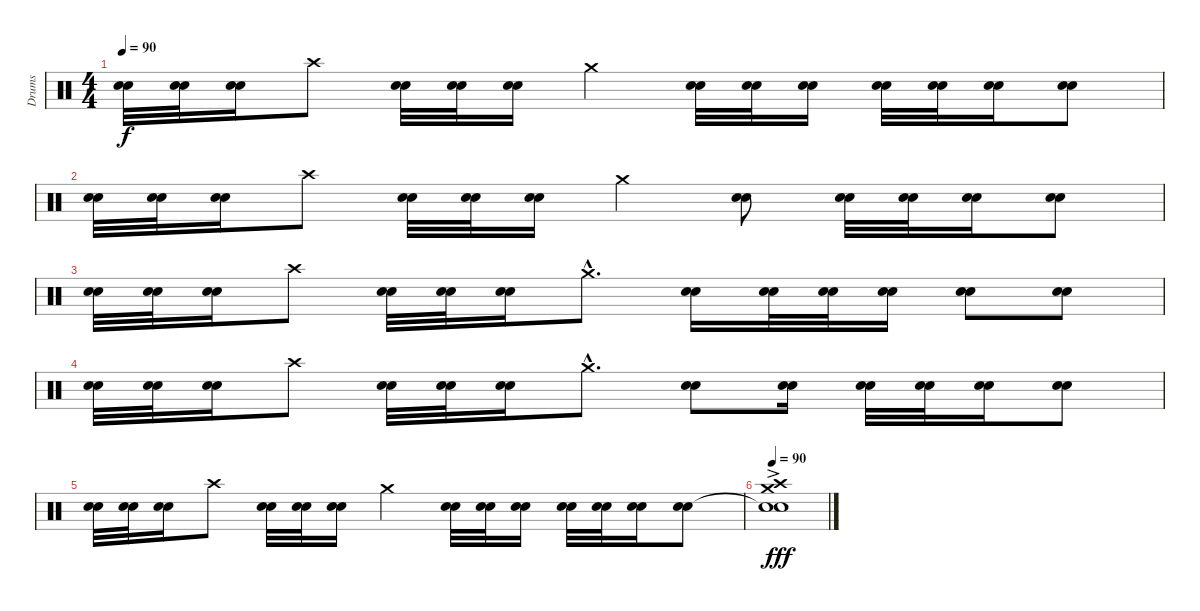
\track ("Drums" "Drums") {instrument percussion}
\staff {score}
\articulation defaults
\ts (4 4)
\tempo 90
\clef neutral
\ks c
("Electric Snare (hit)" "Snare (hit) 2").32{dy f} ("Electric Snare (hit)" "Snare (hit) 2").32 ("Electric Snare (hit)" "Snare (hit) 2").16 "Crash high (hit)".8 ("Electric Snare (hit)" "Snare (hit) 2").32 ("Electric Snare (hit)" "Snare (hit) 2").32 ("Electric Snare (hit)" "Snare (hit) 2").16 "Crash medium (hit)".4 ("Electric Snare (hit)" "Snare (hit) 2").32 ("Electric Snare (hit)" "Snare (hit) 2").32 ("Electric Snare (hit)" "Snare (hit) 2").16 ("Electric Snare (hit)" "Snare (hit) 2").32 ("Electric Snare (hit)" "Snare (hit) 2").32 ("Electric Snare (hit)" "Snare (hit) 2").16 ("Electric Snare (hit)" "Snare (hit) 2").8 |
("Electric Snare (hit)" "Snare (hit) 2").32 ("Electric Snare (hit)" "Snare (hit) 2").32 ("Electric Snare (hit)" "Snare (hit) 2").16 "Crash high (hit)".8 ("Electric Snare (hit)" "Snare (hit) 2").32 ("Electric Snare (hit)" "Snare (hit) 2").32 ("Electric Snare (hit)" "Snare (hit) 2").16 "Crash medium (hit)".4 ("Electric Snare (hit)" "Snare (hit) 2").8 ("Electric Snare (hit)" "Snare (hit) 2").32 ("Electric Snare (hit)" "Snare (hit) 2").32 ("Electric Snare (hit)" "Snare (hit) 2").16 ("Electric Snare (hit)" "Snare (hit) 2").8 |
("Electric Snare (hit)" "Snare (hit) 2").32 ("Electric Snare (hit)" "Snare (hit) 2").32 ("Electric Snare (hit)" "Snare (hit) 2").16 "Crash high (hit)".8 ("Electric Snare (hit)" "Snare (hit) 2").32 ("Electric Snare (hit)" "Snare (hit) 2").32 ("Electric Snare (hit)" "Snare (hit) 2").16 "Crash medium (hit)"{hac}.8{d} ("Electric Snare (hit)" "Snare (hit) 2").16 ("Electric Snare (hit)" "Snare (hit) 2").32 ("Electric Snare (hit)" "Snare (hit) 2").32 ("Electric Snare (hit)" "Snare (hit) 2").16 ("Electric Snare (hit)" "Snare (hit) 2").8 ("Electric Snare (hit)" "Snare (hit) 2").8 |
("Electric Snare (hit)" "Snare (hit) 2").32 ("Electric Snare (hit)" "Snare (hit) 2").32 ("Electric Snare (hit)" "Snare (hit) 2").16 "Crash high (hit)".8 ("Electric Snare (hit)" "Snare (hit) 2").32 ("Electric Snare (hit)" "Snare (hit) 2").32 ("Electric Snare (hit)" "Snare (hit) 2").16 "Crash medium (hit)"{hac}.8{d} ("Electric Snare (hit)" "Snare (hit) 2").8 ("Electric Snare (hit)" "Snare (hit) 2").16 ("Electric Snare (hit)" "Snare (hit) 2").32 ("Electric Snare (hit)" "Snare (hit) 2").32 ("Electric Snare (hit)" "Snare (hit) 2").16 ("Electric Snare (hit)" "Snare (hit) 2").8 |
("Electric Snare (hit)" "Snare (hit) 2").32 ("Electric Snare (hit)" "Snare (hit) 2").32 ("Electric Snare (hit)" "Snare (hit) 2").16 "Crash high (hit)".8 ("Electric Snare (hit)" "Snare (hit) 2").32 ("Electric Snare (hit)" "Snare (hit) 2").32 ("Electric Snare (hit)" "Snare (hit) 2").16 "Crash medium (hit)".4 ("Electric Snare (hit)" "Snare (hit) 2").32 ("Electric Snare (hit)" "Snare (hit) 2").32 ("Electric Snare (hit)" "Snare (hit) 2").16 ("Electric Snare (hit)" "Snare (hit) 2").32 ("Electric Snare (hit)" "Snare (hit) 2").32 ("Electric Snare (hit)" "Snare (hit) 2").16 ("Electric Snare (hit)" "Snare (hit) 2").8 |
\tempo 90
("Crash medium (hit)"{ac} "Snare (hit)"{t} "Snare (hit)" "Crash high (hit)"{ac}).1{dy fff}
